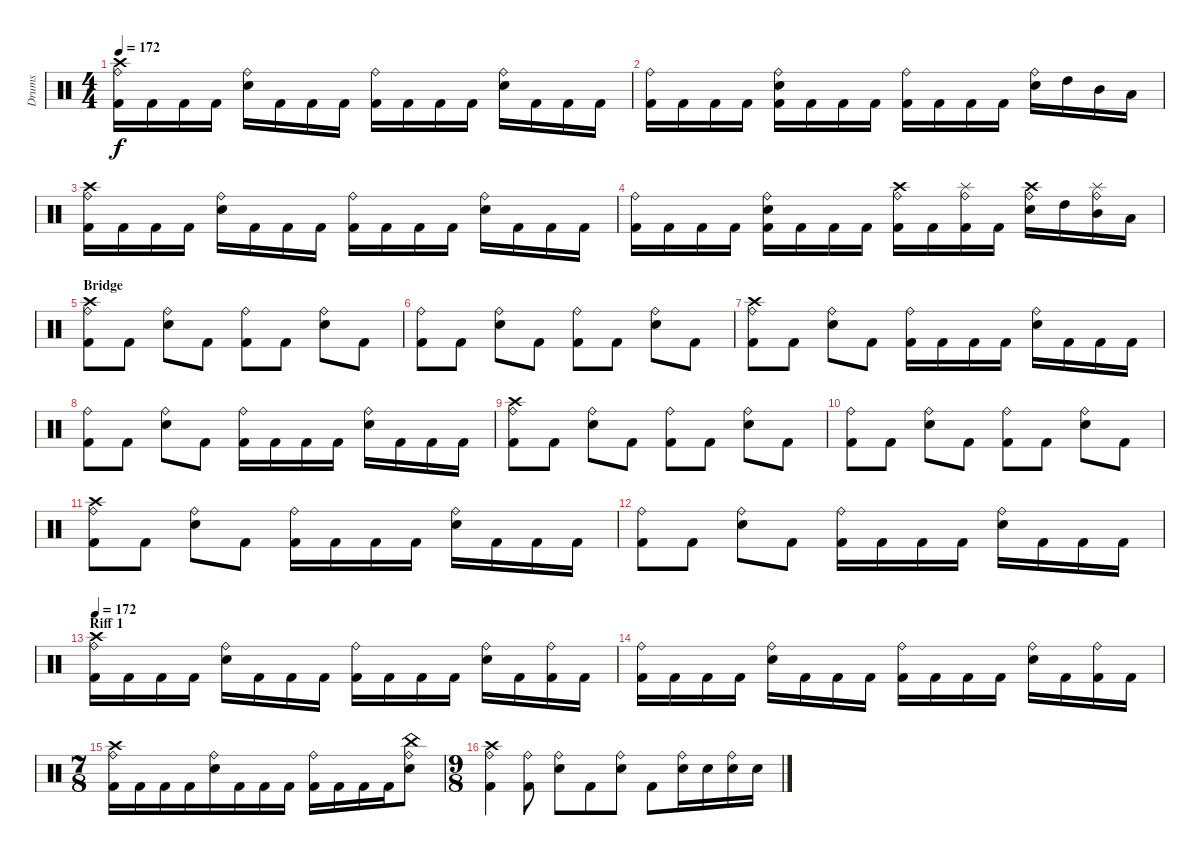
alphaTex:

\track ("Drums" "Drums") {instrument percussion}
\staff {score}
\articulation defaults
\ts (4 4)
\tempo 172
\clef neutral
\ks c
("Crash high (hit)" "Ride (bell)" "Kick (hit) 2").16{dy f} "Kick (hit) 2".16 "Kick (hit) 2".16 "Kick (hit) 2".16 ("Ride (bell)" "Electric Snare (hit)").16 "Kick (hit) 2".16 "Kick (hit) 2".16 "Kick (hit) 2".16 ("Ride (bell)" "Kick (hit) 2").16 "Kick (hit) 2".16 "Kick (hit) 2".16 "Kick (hit) 2".16 ("Ride (bell)" "Electric Snare (hit)").16 "Kick (hit) 2".16 "Kick (hit) 2".16 "Kick (hit) 2".16 |
("Ride (bell)" "Kick (hit) 2").16 "Kick (hit) 2".16 "Kick (hit) 2".16 "Kick (hit) 2".16 ("Ride (bell)" "Electric Snare (hit)" "Kick (hit) 2").16 "Kick (hit) 2".16 "Kick (hit) 2".16 "Kick (hit) 2".16 ("Ride (bell)" "Kick (hit) 2").16 "Kick (hit) 2".16 "Kick (hit) 2".16 "Kick (hit) 2".16 ("Ride (bell)" "Electric Snare (hit)").16 "High Tom (hit)".16 "Mid Tom (hit)".16 "Low Tom (hit)".16 |
("Crash high (hit)" "Ride (bell)" "Kick (hit) 2").16 "Kick (hit) 2".16 "Kick (hit) 2".16 "Kick (hit) 2".16 ("Ride (bell)" "Electric Snare (hit)").16 "Kick (hit) 2".16 "Kick (hit) 2".16 "Kick (hit) 2".16 ("Ride (bell)" "Kick (hit) 2").16 "Kick (hit) 2".16 "Kick (hit) 2".16 "Kick (hit) 2".16 ("Ride (bell)" "Electric Snare (hit)").16 "Kick (hit) 2".16 "Kick (hit) 2".16 "Kick (hit) 2".16 |
("Ride (bell)" "Kick (hit) 2").16 "Kick (hit) 2".16 "Kick (hit) 2".16 "Kick (hit) 2".16 ("Ride (bell)" "Electric Snare (hit)" "Kick (hit) 2").16 "Kick (hit) 2".16 "Kick (hit) 2".16 "Kick (hit) 2".16 ("Crash high (hit)" "Ride (bell)" "Kick (hit) 2").16 "Kick (hit) 2".16 ("Splash (hit)" "Ride (bell)" "Kick (hit) 2").16 "Kick (hit) 2".16 ("Crash high (hit)" "Ride (bell)" "Electric Snare (hit)").16 "High Tom (hit)".16 ("Splash (hit)" "Ride (bell)" "Mid Tom (hit)").16 "Low Tom (hit)".16 |
\section ("" "Bridge")
("Crash high (hit)" "Ride (bell)" "Kick (hit) 2").8 "Kick (hit) 2".8 ("Ride (bell)" "Electric Snare (hit)").8 "Kick (hit) 2".8 ("Ride (bell)" "Kick (hit) 2").8 "Kick (hit) 2".8 ("Ride (bell)" "Electric Snare (hit)").8 "Kick (hit) 2".8 |
("Ride (bell)" "Kick (hit) 2").8 "Kick (hit) 2".8 ("Ride (bell)" "Electric Snare (hit)").8 "Kick (hit) 2".8 ("Ride (bell)" "Kick (hit) 2").8 "Kick (hit) 2".8 ("Ride (bell)" "Electric Snare (hit)").8 "Kick (hit) 2".8 |
("Crash high (hit)" "Ride (bell)" "Kick (hit) 2").8 "Kick (hit) 2".8 ("Ride (bell)" "Electric Snare (hit)").8 "Kick (hit) 2".8 ("Ride (bell)" "Kick (hit) 2").16 "Kick (hit) 2".16 "Kick (hit) 2".16 "Kick (hit) 2".16 ("Ride (bell)" "Electric Snare (hit)").16 "Kick (hit) 2".16 "Kick (hit) 2".16 "Kick (hit) 2".16 |
("Ride (bell)" "Kick (hit) 2").8 "Kick (hit) 2".8 ("Ride (bell)" "Electric Snare (hit)").8 "Kick (hit) 2".8 ("Ride (bell)" "Kick (hit) 2").16 "Kick (hit) 2".16 "Kick (hit) 2".16 "Kick (hit) 2".16 ("Ride (bell)" "Electric Snare (hit)").16 "Kick (hit) 2".16 "Kick (hit) 2".16 "Kick (hit) 2".16 |
("Crash high (hit)" "Ride (bell)" "Kick (hit) 2").8 "Kick (hit) 2".8 ("Ride (bell)" "Electric Snare (hit)").8 "Kick (hit) 2".8 ("Ride (bell)" "Kick (hit) 2").8 "Kick (hit) 2".8 ("Ride (bell)" "Electric Snare (hit)").8 "Kick (hit) 2".8 |
("Ride (bell)" "Kick (hit) 2").8 "Kick (hit) 2".8 ("Ride (bell)" "Electric Snare (hit)").8 "Kick (hit) 2".8 ("Ride (bell)" "Kick (hit) 2").8 "Kick (hit) 2".8 ("Ride (bell)" "Electric Snare (hit)").8 "Kick (hit) 2".8 |
("Crash high (hit)" "Ride (bell)" "Kick (hit) 2").8 "Kick (hit) 2".8 ("Ride (bell)" "Electric Snare (hit)").8 "Kick (hit) 2".8 ("Ride (bell)" "Kick (hit) 2").16 "Kick (hit) 2".16 "Kick (hit) 2".16 "Kick (hit) 2".16 ("Ride (bell)" "Electric Snare (hit)").16 "Kick (hit) 2".16 "Kick (hit) 2".16 "Kick (hit) 2".16 |
("Ride (bell)" "Kick (hit) 2").8 "Kick (hit) 2".8 ("Ride (bell)" "Electric Snare (hit)").8 "Kick (hit) 2".8 ("Ride (bell)" "Kick (hit) 2").16 "Kick (hit) 2".16 "Kick (hit) 2".16 "Kick (hit) 2".16 ("Ride (bell)" "Electric Snare (hit)").16 "Kick (hit) 2".16 "Kick (hit) 2".16 "Kick (hit) 2".16 |
\section ("" "Riff 1")
\tempo 172
("Crash high (hit)" "Ride (bell)" "Kick (hit) 2").16 "Kick (hit) 2".16 "Kick (hit) 2".16 "Kick (hit) 2".16 ("Ride (bell)" "Electric Snare (hit)").16 "Kick (hit) 2".16 "Kick (hit) 2".16 "Kick (hit) 2".16 ("Ride (bell)" "Kick (hit) 2").16 "Kick (hit) 2".16 "Kick (hit) 2".16 "Kick (hit) 2".16 ("Ride (bell)" "Electric Snare (hit)").16 "Kick (hit) 2".16 ("Ride (bell)" "Kick (hit) 2").16 "Kick (hit) 2".16 |
("Ride (bell)" "Kick (hit) 2").16 "Kick (hit) 2".16 "Kick (hit) 2".16 "Kick (hit) 2".16 ("Ride (bell)" "Electric Snare (hit)").16 "Kick (hit) 2".16 "Kick (hit) 2".16 "Kick (hit) 2".16 ("Ride (bell)" "Kick (hit) 2").16 "Kick (hit) 2".16 "Kick (hit) 2".16 "Kick (hit) 2".16 ("Ride (bell)" "Electric Snare (hit)").16 "Kick (hit) 2".16 ("Ride (bell)" "Kick (hit) 2").16 "Kick (hit) 2".16 |
\ts (7 8)
("Crash high (hit)" "Ride (bell)" "Kick (hit) 2").16 "Kick (hit) 2".16 "Kick (hit) 2".16 "Kick (hit) 2".16 ("Ride (bell)" "Electric Snare (hit)").16 "Kick (hit) 2".16 "Kick (hit) 2".16 "Kick (hit) 2".16 ("Ride (bell)" "Kick (hit) 2").16 "Kick (hit) 2".16 "Kick (hit) 2".16 "Kick (hit) 2".16 ("China (hit)" "Ride (bell)" "Electric Snare (hit)").8 |
\ts (9 8)
("Crash high (hit)" "Ride (bell)" "Kick (hit) 2").4 ("Ride (bell)" "Kick (hit) 2").8 ("Ride (bell)" "Electric Snare (hit)").8 "Kick (hit) 2".8 ("Ride (bell)" "Electric Snare (hit)").8 "Kick (hit) 2".8 ("Ride (bell)" "Electric Snare (hit)").16 "Electric Snare (hit)".16 ("Ride (bell)" "Electric Snare (hit)").16 "Electric Snare (hit)".16
